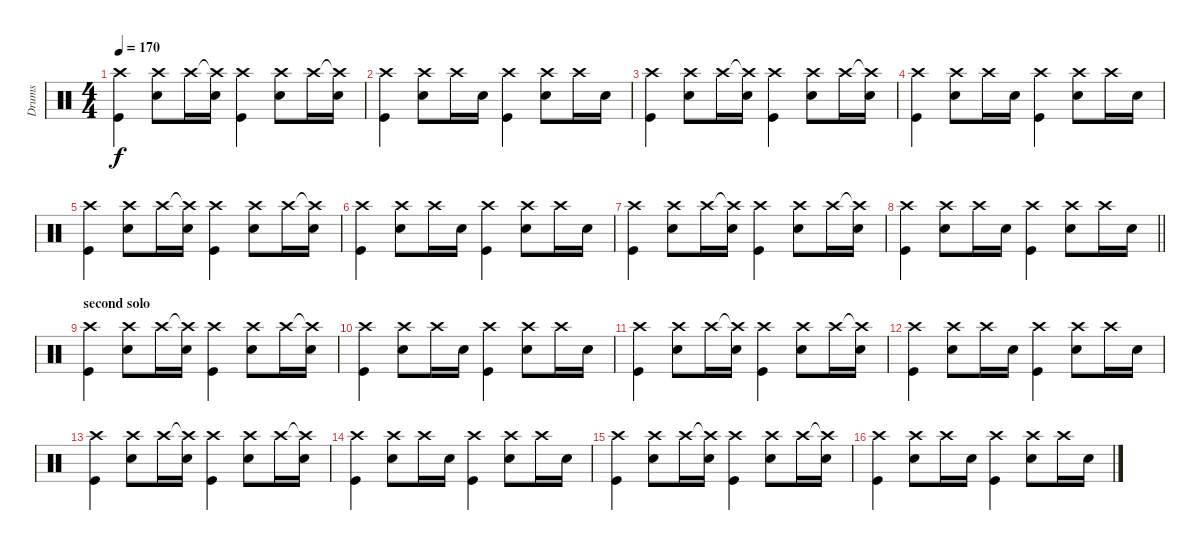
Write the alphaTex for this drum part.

\track ("Drums" "Drums") {instrument percussion}
\staff {score}
\articulation defaults
\ts (4 4)
\tempo 170
\clef neutral
\ks c
("Crash high (hit)" "Kick (hit)").4{dy f} ("Crash high (hit)" "Snare (hit) 2").8 "Crash high (hit)".16 ("Crash high (hit)"{t} "Snare (hit) 2").16 ("Crash high (hit)" "Kick (hit)").4 ("Crash high (hit)" "Snare (hit) 2").8 "Crash high (hit)".16 ("Crash high (hit)"{t} "Snare (hit) 2").16 |
("Crash high (hit)" "Kick (hit)").4 ("Crash high (hit)" "Snare (hit) 2").8 "Crash high (hit)".16 "Snare (hit) 2".16 ("Crash high (hit)" "Kick (hit)").4 ("Crash high (hit)" "Snare (hit) 2").8 "Crash high (hit)".16 "Snare (hit) 2".16 |
("Crash high (hit)" "Kick (hit)").4 ("Crash high (hit)" "Snare (hit) 2").8 "Crash high (hit)".16 ("Crash high (hit)"{t} "Snare (hit) 2").16 ("Crash high (hit)" "Kick (hit)").4 ("Crash high (hit)" "Snare (hit) 2").8 "Crash high (hit)".16 ("Crash high (hit)"{t} "Snare (hit) 2").16 |
("Crash high (hit)" "Kick (hit)").4 ("Crash high (hit)" "Snare (hit) 2").8 "Crash high (hit)".16 "Snare (hit) 2".16 ("Crash high (hit)" "Kick (hit)").4 ("Crash high (hit)" "Snare (hit) 2").8 "Crash high (hit)".16 "Snare (hit) 2".16 |
("Crash high (hit)" "Kick (hit)").4 ("Crash high (hit)" "Snare (hit) 2").8 "Crash high (hit)".16 ("Crash high (hit)"{t} "Snare (hit) 2").16 ("Crash high (hit)" "Kick (hit)").4 ("Crash high (hit)" "Snare (hit) 2").8 "Crash high (hit)".16 ("Crash high (hit)"{t} "Snare (hit) 2").16 |
("Crash high (hit)" "Kick (hit)").4 ("Crash high (hit)" "Snare (hit) 2").8 "Crash high (hit)".16 "Snare (hit) 2".16 ("Crash high (hit)" "Kick (hit)").4 ("Crash high (hit)" "Snare (hit) 2").8 "Crash high (hit)".16 "Snare (hit) 2".16 |
("Crash high (hit)" "Kick (hit)").4 ("Crash high (hit)" "Snare (hit) 2").8 "Crash high (hit)".16 ("Crash high (hit)"{t} "Snare (hit) 2").16 ("Crash high (hit)" "Kick (hit)").4 ("Crash high (hit)" "Snare (hit) 2").8 "Crash high (hit)".16 ("Crash high (hit)"{t} "Snare (hit) 2").16 |
\barLineRight lightlight
("Crash high (hit)" "Kick (hit)").4 ("Crash high (hit)" "Snare (hit) 2").8 "Crash high (hit)".16 "Snare (hit) 2".16 ("Crash high (hit)" "Kick (hit)").4 ("Crash high (hit)" "Snare (hit) 2").8 "Crash high (hit)".16 "Snare (hit) 2".16 |
\section ("" "second solo")
("Crash high (hit)" "Kick (hit)").4 ("Crash high (hit)" "Snare (hit) 2").8 "Crash high (hit)".16 ("Crash high (hit)"{t} "Snare (hit) 2").16 ("Crash high (hit)" "Kick (hit)").4 ("Crash high (hit)" "Snare (hit) 2").8 "Crash high (hit)".16 ("Crash high (hit)"{t} "Snare (hit) 2").16 |
("Crash high (hit)" "Kick (hit)").4 ("Crash high (hit)" "Snare (hit) 2").8 "Crash high (hit)".16 "Snare (hit) 2".16 ("Crash high (hit)" "Kick (hit)").4 ("Crash high (hit)" "Snare (hit) 2").8 "Crash high (hit)".16 "Snare (hit) 2".16 |
("Crash high (hit)" "Kick (hit)").4 ("Crash high (hit)" "Snare (hit) 2").8 "Crash high (hit)".16 ("Crash high (hit)"{t} "Snare (hit) 2").16 ("Crash high (hit)" "Kick (hit)").4 ("Crash high (hit)" "Snare (hit) 2").8 "Crash high (hit)".16 ("Crash high (hit)"{t} "Snare (hit) 2").16 |
("Crash high (hit)" "Kick (hit)").4 ("Crash high (hit)" "Snare (hit) 2").8 "Crash high (hit)".16 "Snare (hit) 2".16 ("Crash high (hit)" "Kick (hit)").4 ("Crash high (hit)" "Snare (hit) 2").8 "Crash high (hit)".16 "Snare (hit) 2".16 |
("Crash high (hit)" "Kick (hit)").4 ("Crash high (hit)" "Snare (hit) 2").8 "Crash high (hit)".16 ("Crash high (hit)"{t} "Snare (hit) 2").16 ("Crash high (hit)" "Kick (hit)").4 ("Crash high (hit)" "Snare (hit) 2").8 "Crash high (hit)".16 ("Crash high (hit)"{t} "Snare (hit) 2").16 |
("Crash high (hit)" "Kick (hit)").4 ("Crash high (hit)" "Snare (hit) 2").8 "Crash high (hit)".16 "Snare (hit) 2".16 ("Crash high (hit)" "Kick (hit)").4 ("Crash high (hit)" "Snare (hit) 2").8 "Crash high (hit)".16 "Snare (hit) 2".16 |
("Crash high (hit)" "Kick (hit)").4 ("Crash high (hit)" "Snare (hit) 2").8 "Crash high (hit)".16 ("Crash high (hit)"{t} "Snare (hit) 2").16 ("Crash high (hit)" "Kick (hit)").4 ("Crash high (hit)" "Snare (hit) 2").8 "Crash high (hit)".16 ("Crash high (hit)"{t} "Snare (hit) 2").16 |
("Crash high (hit)" "Kick (hit)").4 ("Crash high (hit)" "Snare (hit) 2").8 "Crash high (hit)".16 "Snare (hit) 2".16 ("Crash high (hit)" "Kick (hit)").4 ("Crash high (hit)" "Snare (hit) 2").8 "Crash high (hit)".16 "Snare (hit) 2".16
